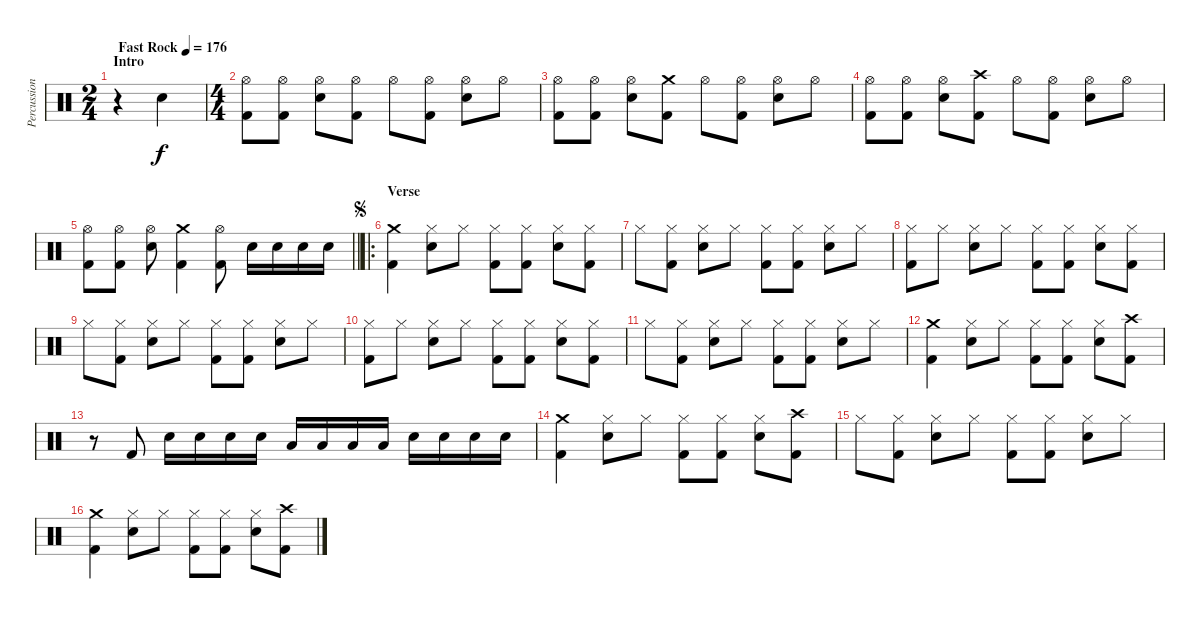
\track ("Percussion" "Percussion") {instrument percussion}
\staff {score}
\articulation defaults
\ts (2 4)
\section ("" "Intro")
\tempo (176 "Fast Rock")
\clef neutral
\ks c
r.4{dy f} "Snare (hit) 2".4 |
\ts (4 4)
("Hi-Hat (open)" "Kick (hit) 2").8 ("Hi-Hat (open)" "Kick (hit) 2").8 ("Hi-Hat (open)" "Snare (hit) 2").8 ("Hi-Hat (open)" "Kick (hit) 2").8 "Hi-Hat (open)".8 ("Hi-Hat (open)" "Kick (hit) 2").8 ("Hi-Hat (open)" "Snare (hit) 2").8 "Hi-Hat (open)".8 |
("Hi-Hat (open)" "Kick (hit) 2").8 ("Hi-Hat (open)" "Kick (hit) 2").8 ("Hi-Hat (open)" "Snare (hit) 2").8 ("Crash medium (hit)" "Kick (hit) 2").8 "Hi-Hat (open)".8 ("Hi-Hat (open)" "Kick (hit) 2").8 ("Hi-Hat (open)" "Snare (hit) 2").8 "Hi-Hat (open)".8 |
("Hi-Hat (open)" "Kick (hit) 2").8 ("Hi-Hat (open)" "Kick (hit) 2").8 ("Hi-Hat (open)" "Snare (hit) 2").8 ("Crash high (hit)" "Kick (hit) 2").8 "Hi-Hat (open)".8 ("Hi-Hat (open)" "Kick (hit) 2").8 ("Hi-Hat (open)" "Snare (hit) 2").8 "Hi-Hat (open)".8 |
\barLineRight lightlight
("Hi-Hat (open)" "Kick (hit) 2").8 ("Hi-Hat (open)" "Kick (hit) 2").8 ("Hi-Hat (open)" "Snare (hit) 2").8 ("Crash medium (hit)" "Kick (hit) 2").4 ("Hi-Hat (open)" "Kick (hit) 2").8 "Snare (hit) 2".16 "Snare (hit) 2".16 "Snare (hit) 2".16 "Snare (hit) 2".16 |
\ro
\section ("" "Verse")
\jump segno
("Crash medium (hit)" "Kick (hit) 2").4 ("Hi-Hat (closed)" "Snare (hit) 2").8 "Hi-Hat (closed)".8 ("Hi-Hat (closed)" "Kick (hit) 2").8 ("Hi-Hat (closed)" "Kick (hit) 2").8 ("Hi-Hat (closed)" "Snare (hit) 2").8 ("Hi-Hat (closed)" "Kick (hit) 2").8 |
"Hi-Hat (closed)".8 ("Hi-Hat (closed)" "Kick (hit) 2").8 ("Hi-Hat (closed)" "Snare (hit) 2").8 "Hi-Hat (closed)".8 ("Hi-Hat (closed)" "Kick (hit) 2").8 ("Hi-Hat (closed)" "Kick (hit) 2").8 ("Hi-Hat (closed)" "Snare (hit) 2").8 "Hi-Hat (closed)".8 |
("Hi-Hat (closed)" "Kick (hit) 2").8 "Hi-Hat (closed)".8 ("Hi-Hat (closed)" "Snare (hit) 2").8 "Hi-Hat (closed)".8 ("Hi-Hat (closed)" "Kick (hit) 2").8 ("Hi-Hat (closed)" "Kick (hit) 2").8 ("Hi-Hat (closed)" "Snare (hit) 2").8 ("Hi-Hat (closed)" "Kick (hit) 2").8 |
"Hi-Hat (closed)".8 ("Hi-Hat (closed)" "Kick (hit) 2").8 ("Hi-Hat (closed)" "Snare (hit) 2").8 "Hi-Hat (closed)".8 ("Hi-Hat (closed)" "Kick (hit) 2").8 ("Hi-Hat (closed)" "Kick (hit) 2").8 ("Hi-Hat (closed)" "Snare (hit) 2").8 "Hi-Hat (closed)".8 |
("Hi-Hat (closed)" "Kick (hit) 2").8 "Hi-Hat (closed)".8 ("Hi-Hat (closed)" "Snare (hit) 2").8 "Hi-Hat (closed)".8 ("Hi-Hat (closed)" "Kick (hit) 2").8 ("Hi-Hat (closed)" "Kick (hit) 2").8 ("Hi-Hat (closed)" "Snare (hit) 2").8 ("Hi-Hat (closed)" "Kick (hit) 2").8 |
"Hi-Hat (closed)".8 ("Hi-Hat (closed)" "Kick (hit) 2").8 ("Hi-Hat (closed)" "Snare (hit) 2").8 "Hi-Hat (closed)".8 ("Hi-Hat (closed)" "Kick (hit) 2").8 ("Hi-Hat (closed)" "Kick (hit) 2").8 ("Hi-Hat (closed)" "Snare (hit) 2").8 "Hi-Hat (closed)".8 |
("Crash medium (hit)" "Kick (hit) 2").4 ("Hi-Hat (closed)" "Snare (hit) 2").8 "Hi-Hat (closed)".8 ("Hi-Hat (closed)" "Kick (hit) 2").8 ("Hi-Hat (closed)" "Kick (hit) 2").8 ("Hi-Hat (closed)" "Snare (hit) 2").8 ("Crash high (hit)" "Kick (hit) 2").8 |
r.8 "Kick (hit) 2".8 "Snare (hit) 2".16 "Snare (hit) 2".16 "Snare (hit) 2".16 "Snare (hit) 2".16 "Low Tom (hit)".16 "Low Tom (hit)".16 "Low Tom (hit)".16 "Low Tom (hit)".16 "Snare (hit) 2".16 "Snare (hit) 2".16 "Snare (hit) 2".16 "Snare (hit) 2".16 |
("Crash medium (hit)" "Kick (hit) 2").4 ("Hi-Hat (closed)" "Snare (hit) 2").8 "Hi-Hat (closed)".8 ("Hi-Hat (closed)" "Kick (hit) 2").8 ("Hi-Hat (closed)" "Kick (hit) 2").8 ("Hi-Hat (closed)" "Snare (hit) 2").8 ("Crash high (hit)" "Kick (hit) 2").8 |
"Hi-Hat (closed)".8 ("Hi-Hat (closed)" "Kick (hit) 2").8 ("Hi-Hat (closed)" "Snare (hit) 2").8 "Hi-Hat (closed)".8 ("Hi-Hat (closed)" "Kick (hit) 2").8 ("Hi-Hat (closed)" "Kick (hit) 2").8 ("Hi-Hat (closed)" "Snare (hit) 2").8 "Hi-Hat (closed)".8 |
("Crash medium (hit)" "Kick (hit) 2").4 ("Hi-Hat (closed)" "Snare (hit) 2").8 "Hi-Hat (closed)".8 ("Hi-Hat (closed)" "Kick (hit) 2").8 ("Hi-Hat (closed)" "Kick (hit) 2").8 ("Hi-Hat (closed)" "Snare (hit) 2").8 ("Crash high (hit)" "Kick (hit) 2").8
